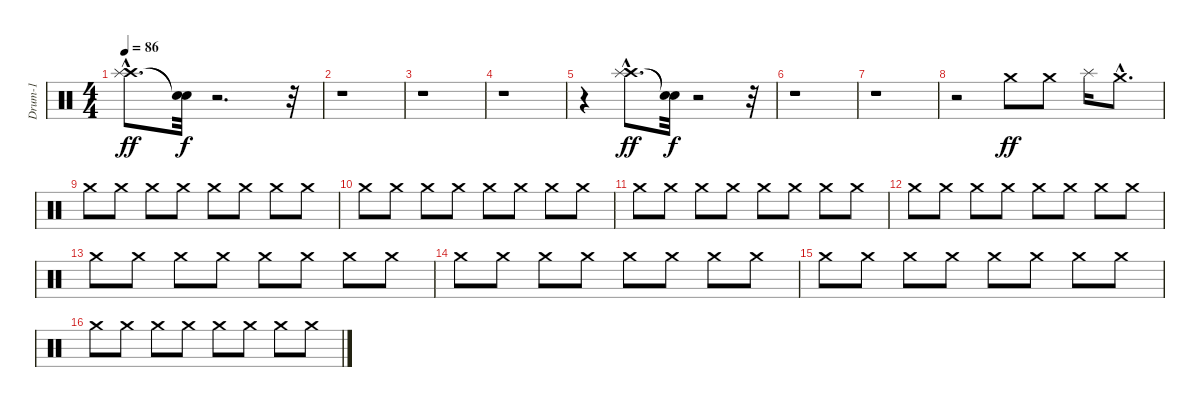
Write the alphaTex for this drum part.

\track ("Drum-1" "Drum-1") {instrument percussion}
\staff {score}
\articulation defaults
\ts (4 4)
\tempo 86
\clef neutral
\ks c
("Crash high (hit)"{hac} "Splash (hit)"{hac}).8{d dy ff} ("Snare (hit)"{t} "Snare (hit)"{t}).32{dy f} r.2{d} r.32 |
r.1 |
r.1 |
r.1 |
r.4 ("Crash high (hit)"{hac} "Splash (hit)"{hac}).8{d dy ff} ("Snare (hit)"{t} "Snare (hit)"{t}).32{dy f} r.2 r.32 |
r.1 |
r.1 |
r.2 "Crash medium (hit)".8{dy ff} "Crash medium (hit)".8 "Splash (hit)".16 "Crash medium (hit)"{hac}.8{d} |
"Crash medium (hit)".8 "Crash medium (hit)".8 "Crash medium (hit)".8 "Crash medium (hit)".8 "Crash medium (hit)".8 "Crash medium (hit)".8 "Crash medium (hit)".8 "Crash medium (hit)".8 |
"Crash medium (hit)".8 "Crash medium (hit)".8 "Crash medium (hit)".8 "Crash medium (hit)".8 "Crash medium (hit)".8 "Crash medium (hit)".8 "Crash medium (hit)".8 "Crash medium (hit)".8 |
"Crash medium (hit)".8 "Crash medium (hit)".8 "Crash medium (hit)".8 "Crash medium (hit)".8 "Crash medium (hit)".8 "Crash medium (hit)".8 "Crash medium (hit)".8 "Crash medium (hit)".8 |
"Crash medium (hit)".8 "Crash medium (hit)".8 "Crash medium (hit)".8 "Crash medium (hit)".8 "Crash medium (hit)".8 "Crash medium (hit)".8 "Crash medium (hit)".8 "Crash medium (hit)".8 |
"Crash medium (hit)".8 "Crash medium (hit)".8 "Crash medium (hit)".8 "Crash medium (hit)".8 "Crash medium (hit)".8 "Crash medium (hit)".8 "Crash medium (hit)".8 "Crash medium (hit)".8 |
"Crash medium (hit)".8 "Crash medium (hit)".8 "Crash medium (hit)".8 "Crash medium (hit)".8 "Crash medium (hit)".8 "Crash medium (hit)".8 "Crash medium (hit)".8 "Crash medium (hit)".8 |
"Crash medium (hit)".8 "Crash medium (hit)".8 "Crash medium (hit)".8 "Crash medium (hit)".8 "Crash medium (hit)".8 "Crash medium (hit)".8 "Crash medium (hit)".8 "Crash medium (hit)".8 |
"Crash medium (hit)".8 "Crash medium (hit)".8 "Crash medium (hit)".8 "Crash medium (hit)".8 "Crash medium (hit)".8 "Crash medium (hit)".8 "Crash medium (hit)".8 "Crash medium (hit)".8
